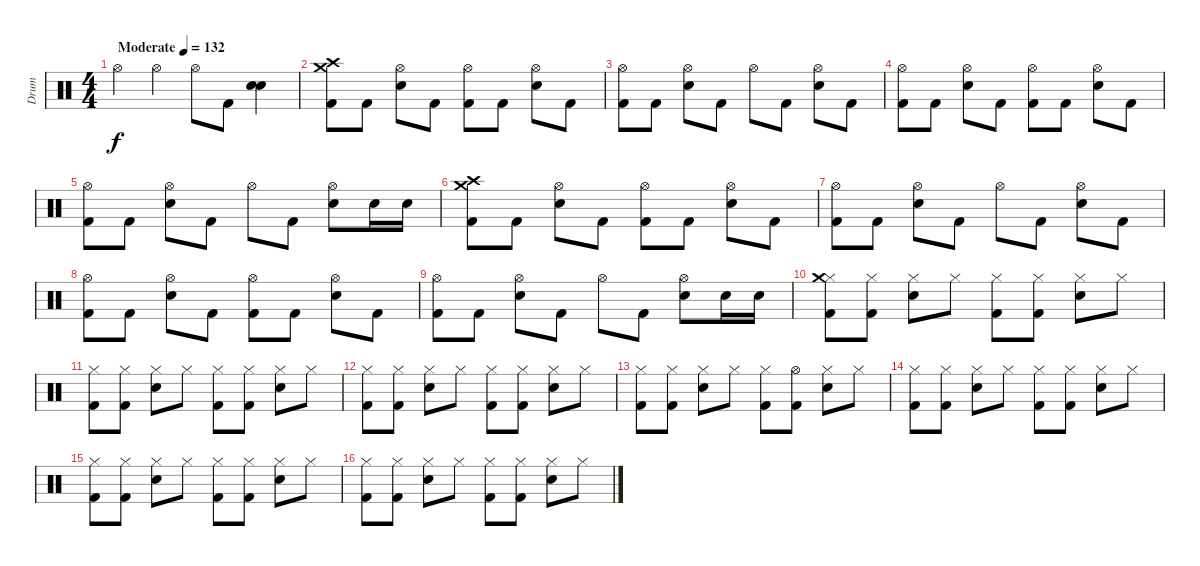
\track ("Drum" "Drum") {instrument percussion}
\staff {score}
\articulation defaults
\ts (4 4)
\tempo (132 "Moderate")
\clef neutral
\ks c "Hi-Hat (open)".4{dy f} "Hi-Hat (open)".4 "Hi-Hat (open)".8 "Kick (hit) 2".8
("Snare (hit) 2" "Snare (hit) 2").4{bd 60} |
("Kick (hit) 2" "Crash high (hit)" "Crash medium (hit)").8 "Kick (hit) 2".8 ("Hi-Hat (open)" "Snare (hit) 2").8 "Kick (hit) 2".8 ("Hi-Hat (open)" "Kick (hit) 2").8 "Kick (hit) 2".8 ("Hi-Hat (open)" "Snare (hit) 2").8 "Kick (hit) 2".8 |
("Hi-Hat (open)" "Kick (hit) 2").8 "Kick (hit) 2".8 ("Hi-Hat (open)" "Snare (hit) 2").8 "Kick (hit) 2".8 "Hi-Hat (open)".8 "Kick (hit) 2".8 ("Hi-Hat (open)" "Snare (hit) 2").8 "Kick (hit) 2".8 |
("Hi-Hat (open)" "Kick (hit) 2").8 "Kick (hit) 2".8 ("Hi-Hat (open)" "Snare (hit) 2").8 "Kick (hit) 2".8 ("Hi-Hat (open)" "Kick (hit) 2").8 "Kick (hit) 2".8 ("Hi-Hat (open)" "Snare (hit) 2").8 "Kick (hit) 2".8 |
("Hi-Hat (open)" "Kick (hit) 2").8 "Kick (hit) 2".8 ("Hi-Hat (open)" "Snare (hit) 2").8 "Kick (hit) 2".8 "Hi-Hat (open)".8 "Kick (hit) 2".8 ("Hi-Hat (open)" "Snare (hit) 2").8 "Snare (hit) 2".16 "Snare (hit) 2".16 |
("Kick (hit) 2" "Crash high (hit)" "Crash medium (hit)").8 "Kick (hit) 2".8 ("Hi-Hat (open)" "Snare (hit) 2").8 "Kick (hit) 2".8 ("Hi-Hat (open)" "Kick (hit) 2").8 "Kick (hit) 2".8 ("Hi-Hat (open)" "Snare (hit) 2").8 "Kick (hit) 2".8 |
("Hi-Hat (open)" "Kick (hit) 2").8 "Kick (hit) 2".8 ("Hi-Hat (open)" "Snare (hit) 2").8 "Kick (hit) 2".8 "Hi-Hat (open)".8 "Kick (hit) 2".8 ("Hi-Hat (open)" "Snare (hit) 2").8 "Kick (hit) 2".8 |
("Hi-Hat (open)" "Kick (hit) 2").8 "Kick (hit) 2".8 ("Hi-Hat (open)" "Snare (hit) 2").8 "Kick (hit) 2".8 ("Hi-Hat (open)" "Kick (hit) 2").8 "Kick (hit) 2".8 ("Hi-Hat (open)" "Snare (hit) 2").8 "Kick (hit) 2".8 |
("Hi-Hat (open)" "Kick (hit) 2").8 "Kick (hit) 2".8 ("Hi-Hat (open)" "Snare (hit) 2").8 "Kick (hit) 2".8 "Hi-Hat (open)".8 "Kick (hit) 2".8 ("Hi-Hat (open)" "Snare (hit) 2").8 "Snare (hit) 2".16 "Snare (hit) 2".16 |
("Hi-Hat (closed)" "Kick (hit) 2" "Crash medium (hit)").8 ("Hi-Hat (closed)" "Kick (hit) 2").8 ("Hi-Hat (closed)" "Snare (hit) 2").8 "Hi-Hat (closed)".8 ("Hi-Hat (closed)" "Kick (hit) 2").8 ("Hi-Hat (closed)" "Kick (hit) 2").8 ("Hi-Hat (closed)" "Snare (hit) 2").8 "Hi-Hat (closed)".8 |
("Hi-Hat (closed)" "Kick (hit) 2").8 ("Hi-Hat (closed)" "Kick (hit) 2").8 ("Hi-Hat (closed)" "Snare (hit) 2").8 "Hi-Hat (closed)".8 ("Hi-Hat (closed)" "Kick (hit) 2").8 ("Hi-Hat (closed)" "Kick (hit) 2").8 ("Hi-Hat (closed)" "Snare (hit) 2").8 "Hi-Hat (closed)".8 |
("Hi-Hat (closed)" "Kick (hit) 2").8 ("Hi-Hat (closed)" "Kick (hit) 2").8 ("Hi-Hat (closed)" "Snare (hit) 2").8 "Hi-Hat (closed)".8 ("Hi-Hat (closed)" "Kick (hit) 2").8 ("Hi-Hat (closed)" "Kick (hit) 2").8 ("Hi-Hat (closed)" "Snare (hit) 2").8 "Hi-Hat (closed)".8 |
("Hi-Hat (closed)" "Kick (hit) 2").8 ("Hi-Hat (closed)" "Kick (hit) 2").8 ("Hi-Hat (closed)" "Snare (hit) 2").8 "Hi-Hat (closed)".8 ("Hi-Hat (closed)" "Kick (hit) 2").8 ("Hi-Hat (open)" "Kick (hit) 2").8 ("Hi-Hat (closed)" "Snare (hit) 2").8 "Hi-Hat (closed)".8 |
("Hi-Hat (closed)" "Kick (hit) 2").8 ("Hi-Hat (closed)" "Kick (hit) 2").8 ("Hi-Hat (closed)" "Snare (hit) 2").8 "Hi-Hat (closed)".8 ("Hi-Hat (closed)" "Kick (hit) 2").8 ("Hi-Hat (closed)" "Kick (hit) 2").8 ("Hi-Hat (closed)" "Snare (hit) 2").8 "Hi-Hat (closed)".8 |
("Hi-Hat (closed)" "Kick (hit) 2").8 ("Hi-Hat (closed)" "Kick (hit) 2").8 ("Hi-Hat (closed)" "Snare (hit) 2").8 "Hi-Hat (closed)".8 ("Hi-Hat (closed)" "Kick (hit) 2").8 ("Hi-Hat (closed)" "Kick (hit) 2").8 ("Hi-Hat (closed)" "Snare (hit) 2").8 "Hi-Hat (closed)".8 |
("Hi-Hat (closed)" "Kick (hit) 2").8 ("Hi-Hat (closed)" "Kick (hit) 2").8 ("Hi-Hat (closed)" "Snare (hit) 2").8 "Hi-Hat (closed)".8 ("Hi-Hat (closed)" "Kick (hit) 2").8 ("Hi-Hat (closed)" "Kick (hit) 2").8 ("Hi-Hat (closed)" "Snare (hit) 2").8 "Hi-Hat (closed)".8
